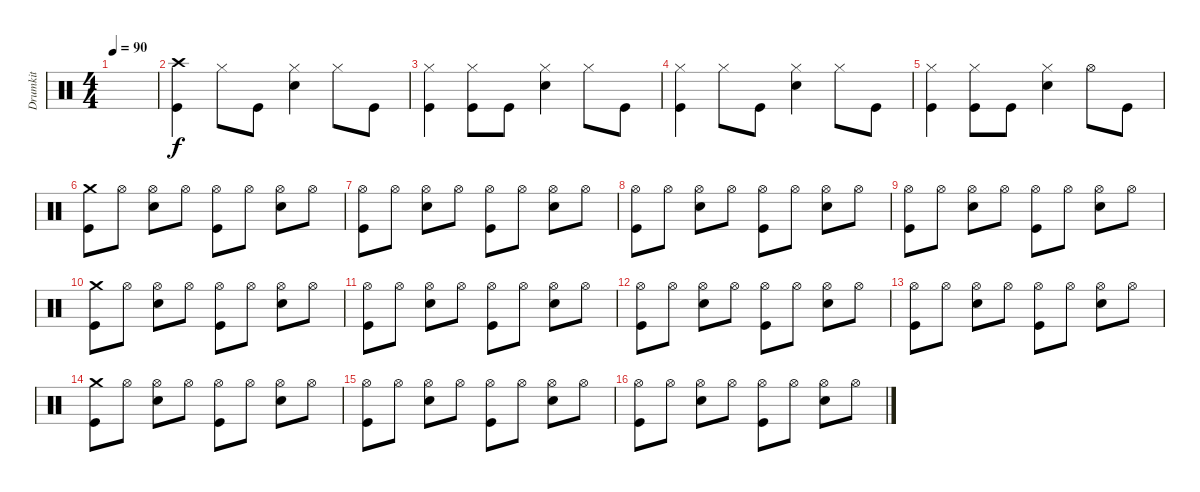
\track ("Drumkit" "Drumkit") {instrument percussion}
\staff {score}
\articulation defaults
\ts (4 4)
\tempo 90
\clef neutral
\ks c
|
("Crash high (hit)" "Kick (hit)").4{dy f} "Hi-Hat (closed)".8 "Kick (hit)".8 ("Hi-Hat (closed)" "Snare (hit) 2").4 "Hi-Hat (closed)".8 "Kick (hit)".8 |
("Hi-Hat (closed)" "Kick (hit)").4 ("Hi-Hat (closed)" "Kick (hit)").8 "Kick (hit)".8 ("Hi-Hat (closed)" "Snare (hit) 2").4 "Hi-Hat (closed)".8 "Kick (hit)".8 |
("Hi-Hat (closed)" "Kick (hit)").4 "Hi-Hat (closed)".8 "Kick (hit)".8 ("Hi-Hat (closed)" "Snare (hit) 2").4 "Hi-Hat (closed)".8 "Kick (hit)".8 |
("Hi-Hat (closed)" "Kick (hit)").4 ("Hi-Hat (closed)" "Kick (hit)").8 "Kick (hit)".8 ("Hi-Hat (closed)" "Snare (hit) 2").4 "Hi-Hat (open)".8 "Kick (hit)".8 |
("Crash medium (hit)" "Kick (hit)").8 "Hi-Hat (open)".8 ("Hi-Hat (open)" "Snare (hit) 2").8 "Hi-Hat (open)".8 ("Hi-Hat (open)" "Kick (hit)").8 "Hi-Hat (open)".8 ("Hi-Hat (open)" "Snare (hit) 2").8 "Hi-Hat (open)".8 |
("Hi-Hat (open)" "Kick (hit)").8 "Hi-Hat (open)".8 ("Hi-Hat (open)" "Snare (hit) 2").8 "Hi-Hat (open)".8 ("Hi-Hat (open)" "Kick (hit)").8 "Hi-Hat (open)".8 ("Hi-Hat (open)" "Snare (hit) 2").8 "Hi-Hat (open)".8 |
("Hi-Hat (open)" "Kick (hit)").8 "Hi-Hat (open)".8 ("Hi-Hat (open)" "Snare (hit) 2").8 "Hi-Hat (open)".8 ("Hi-Hat (open)" "Kick (hit)").8 "Hi-Hat (open)".8 ("Hi-Hat (open)" "Snare (hit) 2").8 "Hi-Hat (open)".8 |
("Hi-Hat (open)" "Kick (hit)").8 "Hi-Hat (open)".8 ("Hi-Hat (open)" "Snare (hit) 2").8 "Hi-Hat (open)".8 ("Hi-Hat (open)" "Kick (hit)").8 "Hi-Hat (open)".8 ("Hi-Hat (open)" "Snare (hit) 2").8 "Hi-Hat (open)".8 |
("Crash medium (hit)" "Kick (hit)").8 "Hi-Hat (open)".8 ("Hi-Hat (open)" "Snare (hit) 2").8 "Hi-Hat (open)".8 ("Hi-Hat (open)" "Kick (hit)").8 "Hi-Hat (open)".8 ("Hi-Hat (open)" "Snare (hit) 2").8 "Hi-Hat (open)".8 |
("Hi-Hat (open)" "Kick (hit)").8 "Hi-Hat (open)".8 ("Hi-Hat (open)" "Snare (hit) 2").8 "Hi-Hat (open)".8 ("Hi-Hat (open)" "Kick (hit)").8 "Hi-Hat (open)".8 ("Hi-Hat (open)" "Snare (hit) 2").8 "Hi-Hat (open)".8 |
("Hi-Hat (open)" "Kick (hit)").8 "Hi-Hat (open)".8 ("Hi-Hat (open)" "Snare (hit) 2").8 "Hi-Hat (open)".8 ("Hi-Hat (open)" "Kick (hit)").8 "Hi-Hat (open)".8 ("Hi-Hat (open)" "Snare (hit) 2").8 "Hi-Hat (open)".8 |
("Hi-Hat (open)" "Kick (hit)").8 "Hi-Hat (open)".8 ("Hi-Hat (open)" "Snare (hit) 2").8 "Hi-Hat (open)".8 ("Hi-Hat (open)" "Kick (hit)").8 "Hi-Hat (open)".8 ("Hi-Hat (open)" "Snare (hit) 2").8 "Hi-Hat (open)".8 |
("Crash medium (hit)" "Kick (hit)").8 "Hi-Hat (open)".8 ("Hi-Hat (open)" "Snare (hit) 2").8 "Hi-Hat (open)".8 ("Hi-Hat (open)" "Kick (hit)").8 "Hi-Hat (open)".8 ("Hi-Hat (open)" "Snare (hit) 2").8 "Hi-Hat (open)".8 |
("Hi-Hat (open)" "Kick (hit)").8 "Hi-Hat (open)".8 ("Hi-Hat (open)" "Snare (hit) 2").8 "Hi-Hat (open)".8 ("Hi-Hat (open)" "Kick (hit)").8 "Hi-Hat (open)".8 ("Hi-Hat (open)" "Snare (hit) 2").8 "Hi-Hat (open)".8 |
("Hi-Hat (open)" "Kick (hit)").8 "Hi-Hat (open)".8 ("Hi-Hat (open)" "Snare (hit) 2").8 "Hi-Hat (open)".8 ("Hi-Hat (open)" "Kick (hit)").8 "Hi-Hat (open)".8 ("Hi-Hat (open)" "Snare (hit) 2").8 "Hi-Hat (open)".8
